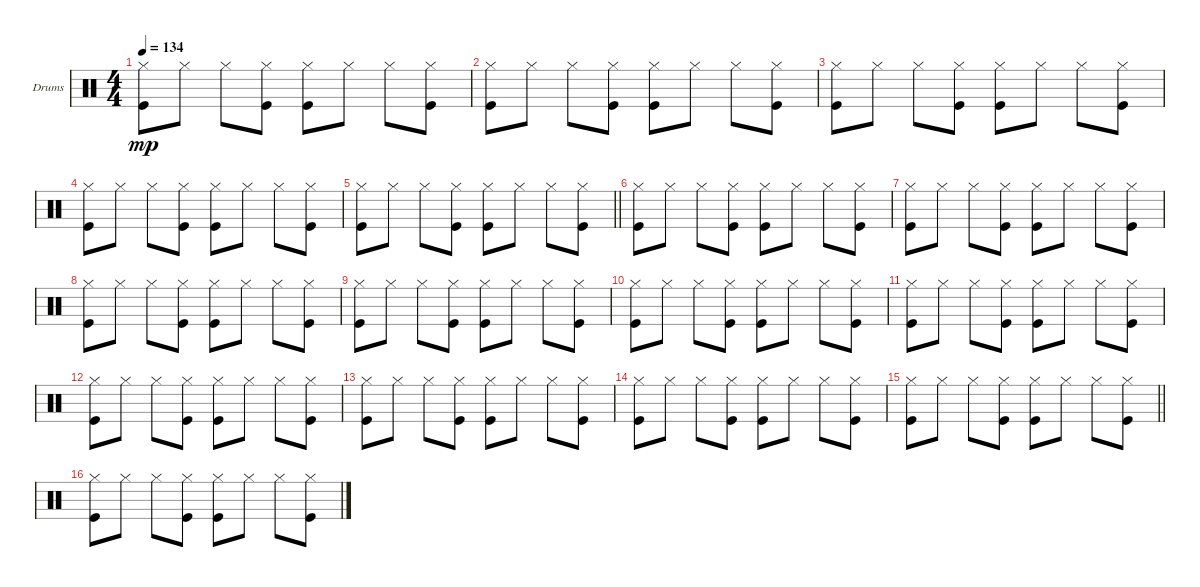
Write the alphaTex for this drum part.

\bracketExtendMode groupsimilarinstruments
\firstSystemTrackNameOrientation horizontal
\otherSystemsTrackNameOrientation horizontal
\track ("Drumkit" "Drums") {instrument percussion}
\staff {score}
\articulation defaults
\ts (4 4)
\scale
0.245232
\tempo 134
\accidentals auto
\clef neutral
\ottava regular
\simile none
\ks c
("Kick (hit)" "Hi-Hat (closed)").8{dy mp} "Hi-Hat (closed)".8 "Hi-Hat (closed)".8 ("Kick (hit)" "Hi-Hat (closed)").8 ("Kick (hit)" "Hi-Hat (closed)").8 "Hi-Hat (closed)".8 "Hi-Hat (closed)".8 ("Hi-Hat (closed)" "Kick (hit)").8 |
\scale
0.254768 ("Kick (hit)" "Hi-Hat (closed)").8 "Hi-Hat (closed)".8 "Hi-Hat (closed)".8 ("Kick (hit)" "Hi-Hat (closed)").8 ("Kick (hit)" "Hi-Hat (closed)").8 "Hi-Hat (closed)".8 "Hi-Hat (closed)".8 ("Hi-Hat (closed)" "Kick (hit)").8 |
\scale
0.245232 ("Kick (hit)" "Hi-Hat (closed)").8 "Hi-Hat (closed)".8 "Hi-Hat (closed)".8 ("Kick (hit)" "Hi-Hat (closed)").8 ("Kick (hit)" "Hi-Hat (closed)").8 "Hi-Hat (closed)".8 "Hi-Hat (closed)".8 ("Hi-Hat (closed)" "Kick (hit)").8 |
\scale
0.254768 ("Kick (hit)" "Hi-Hat (closed)").8 "Hi-Hat (closed)".8 "Hi-Hat (closed)".8 ("Kick (hit)" "Hi-Hat (closed)").8 ("Kick (hit)" "Hi-Hat (closed)").8 "Hi-Hat (closed)".8 "Hi-Hat (closed)".8 ("Hi-Hat (closed)" "Kick (hit)").8 |
\scale
0.223881
\barLineRight lightlight
("Kick (hit)" "Hi-Hat (closed)").8 "Hi-Hat (closed)".8 "Hi-Hat (closed)".8 ("Kick (hit)" "Hi-Hat (closed)").8 ("Kick (hit)" "Hi-Hat (closed)").8 "Hi-Hat (closed)".8 "Hi-Hat (closed)".8 ("Hi-Hat (closed)" "Kick (hit)").8 |
\scale
0.320896 ("Kick (hit)" "Hi-Hat (closed)").8 "Hi-Hat (closed)".8 "Hi-Hat (closed)".8 ("Kick (hit)" "Hi-Hat (closed)").8 ("Kick (hit)" "Hi-Hat (closed)").8 "Hi-Hat (closed)".8 "Hi-Hat (closed)".8 ("Hi-Hat (closed)" "Kick (hit)").8 |
\scale
0.236318 ("Kick (hit)" "Hi-Hat (closed)").8 "Hi-Hat (closed)".8 "Hi-Hat (closed)".8 ("Kick (hit)" "Hi-Hat (closed)").8 ("Kick (hit)" "Hi-Hat (closed)").8 "Hi-Hat (closed)".8 "Hi-Hat (closed)".8 ("Hi-Hat (closed)" "Kick (hit)").8 |
\scale
0.218905 ("Kick (hit)" "Hi-Hat (closed)").8 "Hi-Hat (closed)".8 "Hi-Hat (closed)".8 ("Kick (hit)" "Hi-Hat (closed)").8 ("Kick (hit)" "Hi-Hat (closed)").8 "Hi-Hat (closed)".8 "Hi-Hat (closed)".8 ("Hi-Hat (closed)" "Kick (hit)").8 |
\scale
0.327168 ("Kick (hit)" "Hi-Hat (closed)").8 "Hi-Hat (closed)".8 "Hi-Hat (closed)".8 ("Kick (hit)" "Hi-Hat (closed)").8 ("Kick (hit)" "Hi-Hat (closed)").8 "Hi-Hat (closed)".8 "Hi-Hat (closed)".8 ("Hi-Hat (closed)" "Kick (hit)").8 |
\scale
0.242775 ("Kick (hit)" "Hi-Hat (closed)").8 "Hi-Hat (closed)".8 "Hi-Hat (closed)".8 ("Kick (hit)" "Hi-Hat (closed)").8 ("Kick (hit)" "Hi-Hat (closed)").8 "Hi-Hat (closed)".8 "Hi-Hat (closed)".8 ("Hi-Hat (closed)" "Kick (hit)").8 |
\scale
0.22659 ("Kick (hit)" "Hi-Hat (closed)").8 "Hi-Hat (closed)".8 "Hi-Hat (closed)".8 ("Kick (hit)" "Hi-Hat (closed)").8 ("Kick (hit)" "Hi-Hat (closed)").8 "Hi-Hat (closed)".8 "Hi-Hat (closed)".8 ("Hi-Hat (closed)" "Kick (hit)").8 |
\scale
0.203468 ("Kick (hit)" "Hi-Hat (closed)").8 "Hi-Hat (closed)".8 "Hi-Hat (closed)".8 ("Kick (hit)" "Hi-Hat (closed)").8 ("Kick (hit)" "Hi-Hat (closed)").8 "Hi-Hat (closed)".8 "Hi-Hat (closed)".8 ("Hi-Hat (closed)" "Kick (hit)").8 |
\scale
0.30167 ("Kick (hit)" "Hi-Hat (closed)").8 "Hi-Hat (closed)".8 "Hi-Hat (closed)".8 ("Kick (hit)" "Hi-Hat (closed)").8 ("Kick (hit)" "Hi-Hat (closed)").8 "Hi-Hat (closed)".8 "Hi-Hat (closed)".8 ("Hi-Hat (closed)" "Kick (hit)").8 |
\scale
0.30167 ("Kick (hit)" "Hi-Hat (closed)").8 "Hi-Hat (closed)".8 "Hi-Hat (closed)".8 ("Kick (hit)" "Hi-Hat (closed)").8 ("Kick (hit)" "Hi-Hat (closed)").8 "Hi-Hat (closed)".8 "Hi-Hat (closed)".8 ("Hi-Hat (closed)" "Kick (hit)").8 |
\scale
0.201461
\barLineRight lightlight
("Kick (hit)" "Hi-Hat (closed)").8 "Hi-Hat (closed)".8 "Hi-Hat (closed)".8 ("Kick (hit)" "Hi-Hat (closed)").8 ("Kick (hit)" "Hi-Hat (closed)").8 "Hi-Hat (closed)".8 "Hi-Hat (closed)".8 ("Hi-Hat (closed)" "Kick (hit)").8 |
\scale
0.195198 ("Kick (hit)" "Hi-Hat (closed)").8 "Hi-Hat (closed)".8 "Hi-Hat (closed)".8 ("Kick (hit)" "Hi-Hat (closed)").8 ("Kick (hit)" "Hi-Hat (closed)").8 "Hi-Hat (closed)".8 "Hi-Hat (closed)".8 ("Hi-Hat (closed)" "Kick (hit)").8
